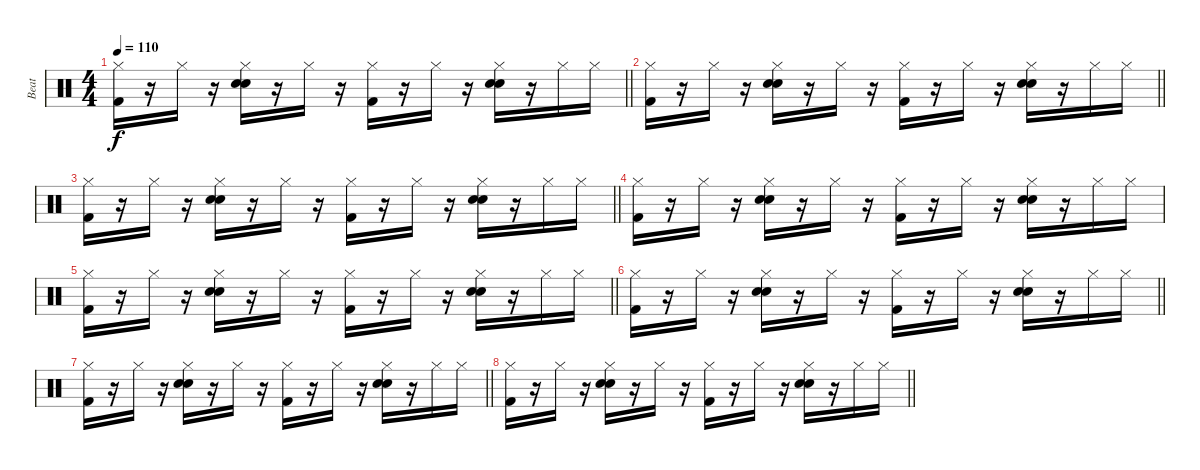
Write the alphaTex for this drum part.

\track ("Beat" "Beat") {instrument percussion}
\staff {score}
\articulation defaults
\ts (4 4)
\tempo 110
\clef neutral
\barLineRight lightlight
\ks c
("Hi-Hat (closed)" "Kick (hit) 2").16{dy f} r.16 "Hi-Hat (closed)".16 r.16 ("Hi-Hat (closed)" "Electric Snare (hit)" "Hand Clap (hit)").16 r.16 "Hi-Hat (closed)".16 r.16 ("Hi-Hat (closed)" "Kick (hit) 2").16 r.16 "Hi-Hat (closed)".16 r.16 ("Hi-Hat (closed)" "Electric Snare (hit)" "Hand Clap (hit)").16 r.16 "Hi-Hat (closed)".16 "Hi-Hat (closed)".16 |
\barLineRight lightlight
("Hi-Hat (closed)" "Kick (hit) 2").16 r.16 "Hi-Hat (closed)".16 r.16 ("Hi-Hat (closed)" "Electric Snare (hit)" "Hand Clap (hit)").16 r.16 "Hi-Hat (closed)".16 r.16 ("Hi-Hat (closed)" "Kick (hit) 2").16 r.16 "Hi-Hat (closed)".16 r.16 ("Hi-Hat (closed)" "Electric Snare (hit)" "Hand Clap (hit)").16 r.16 "Hi-Hat (closed)".16 "Hi-Hat (closed)".16 |
\barLineRight lightlight
("Hi-Hat (closed)" "Kick (hit) 2").16 r.16 "Hi-Hat (closed)".16 r.16 ("Hi-Hat (closed)" "Electric Snare (hit)" "Hand Clap (hit)").16 r.16 "Hi-Hat (closed)".16 r.16 ("Hi-Hat (closed)" "Kick (hit) 2").16 r.16 "Hi-Hat (closed)".16 r.16 ("Hi-Hat (closed)" "Electric Snare (hit)" "Hand Clap (hit)").16 r.16 "Hi-Hat (closed)".16 "Hi-Hat (closed)".16 |
("Hi-Hat (closed)" "Kick (hit) 2").16 r.16 "Hi-Hat (closed)".16 r.16 ("Hi-Hat (closed)" "Electric Snare (hit)" "Hand Clap (hit)").16 r.16 "Hi-Hat (closed)".16 r.16 ("Hi-Hat (closed)" "Kick (hit) 2").16 r.16 "Hi-Hat (closed)".16 r.16 ("Hi-Hat (closed)" "Electric Snare (hit)" "Hand Clap (hit)").16 r.16 "Hi-Hat (closed)".16 "Hi-Hat (closed)".16 |
\barLineRight lightlight
("Hi-Hat (closed)" "Kick (hit) 2").16 r.16 "Hi-Hat (closed)".16 r.16 ("Hi-Hat (closed)" "Electric Snare (hit)" "Hand Clap (hit)").16 r.16 "Hi-Hat (closed)".16 r.16 ("Hi-Hat (closed)" "Kick (hit) 2").16 r.16 "Hi-Hat (closed)".16 r.16 ("Hi-Hat (closed)" "Electric Snare (hit)" "Hand Clap (hit)").16 r.16 "Hi-Hat (closed)".16 "Hi-Hat (closed)".16 |
\barLineRight lightlight
("Hi-Hat (closed)" "Kick (hit) 2").16 r.16 "Hi-Hat (closed)".16 r.16 ("Hi-Hat (closed)" "Electric Snare (hit)" "Hand Clap (hit)").16 r.16 "Hi-Hat (closed)".16 r.16 ("Hi-Hat (closed)" "Kick (hit) 2").16 r.16 "Hi-Hat (closed)".16 r.16 ("Hi-Hat (closed)" "Electric Snare (hit)" "Hand Clap (hit)").16 r.16 "Hi-Hat (closed)".16 "Hi-Hat (closed)".16 |
\barLineRight lightlight
("Hi-Hat (closed)" "Kick (hit) 2").16 r.16 "Hi-Hat (closed)".16 r.16 ("Hi-Hat (closed)" "Electric Snare (hit)" "Hand Clap (hit)").16 r.16 "Hi-Hat (closed)".16 r.16 ("Hi-Hat (closed)" "Kick (hit) 2").16 r.16 "Hi-Hat (closed)".16 r.16 ("Hi-Hat (closed)" "Electric Snare (hit)" "Hand Clap (hit)").16 r.16 "Hi-Hat (closed)".16 "Hi-Hat (closed)".16 |
\barLineRight lightlight
("Hi-Hat (closed)" "Kick (hit) 2").16 r.16 "Hi-Hat (closed)".16 r.16 ("Hi-Hat (closed)" "Electric Snare (hit)" "Hand Clap (hit)").16 r.16 "Hi-Hat (closed)".16 r.16 ("Hi-Hat (closed)" "Kick (hit) 2").16 r.16 "Hi-Hat (closed)".16 r.16 ("Hi-Hat (closed)" "Electric Snare (hit)" "Hand Clap (hit)").16 r.16 "Hi-Hat (closed)".16 "Hi-Hat (closed)".16
